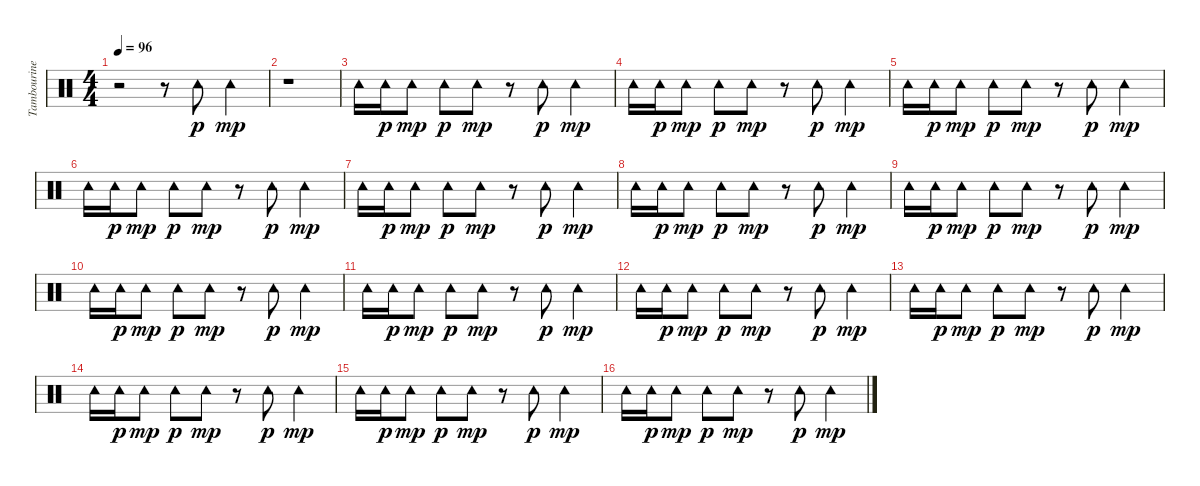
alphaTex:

\track ("Tambourine" "Tambourine") {instrument percussion}
\staff {score}
\articulation defaults
\ts (4 4)
\tempo 96
\clef neutral
\ks c
r.2{dy mp} r.8 "Tambourine (hit)".8{dy p} "Tambourine (hit)".4{dy mp} |
r.1 |
"Tambourine (hit)".16 "Tambourine (hit)".16{dy p} "Tambourine (hit)".8{dy mp} "Tambourine (hit)".8{dy p} "Tambourine (hit)".8{dy mp} r.8 "Tambourine (hit)".8{dy p} "Tambourine (hit)".4{dy mp} |
"Tambourine (hit)".16 "Tambourine (hit)".16{dy p} "Tambourine (hit)".8{dy mp} "Tambourine (hit)".8{dy p} "Tambourine (hit)".8{dy mp} r.8 "Tambourine (hit)".8{dy p} "Tambourine (hit)".4{dy mp} |
"Tambourine (hit)".16 "Tambourine (hit)".16{dy p} "Tambourine (hit)".8{dy mp} "Tambourine (hit)".8{dy p} "Tambourine (hit)".8{dy mp} r.8 "Tambourine (hit)".8{dy p} "Tambourine (hit)".4{dy mp} |
"Tambourine (hit)".16 "Tambourine (hit)".16{dy p} "Tambourine (hit)".8{dy mp} "Tambourine (hit)".8{dy p} "Tambourine (hit)".8{dy mp} r.8 "Tambourine (hit)".8{dy p} "Tambourine (hit)".4{dy mp} |
"Tambourine (hit)".16 "Tambourine (hit)".16{dy p} "Tambourine (hit)".8{dy mp} "Tambourine (hit)".8{dy p} "Tambourine (hit)".8{dy mp} r.8 "Tambourine (hit)".8{dy p} "Tambourine (hit)".4{dy mp} |
"Tambourine (hit)".16 "Tambourine (hit)".16{dy p} "Tambourine (hit)".8{dy mp} "Tambourine (hit)".8{dy p} "Tambourine (hit)".8{dy mp} r.8 "Tambourine (hit)".8{dy p} "Tambourine (hit)".4{dy mp} |
"Tambourine (hit)".16 "Tambourine (hit)".16{dy p} "Tambourine (hit)".8{dy mp} "Tambourine (hit)".8{dy p} "Tambourine (hit)".8{dy mp} r.8 "Tambourine (hit)".8{dy p} "Tambourine (hit)".4{dy mp} |
"Tambourine (hit)".16 "Tambourine (hit)".16{dy p} "Tambourine (hit)".8{dy mp} "Tambourine (hit)".8{dy p} "Tambourine (hit)".8{dy mp} r.8 "Tambourine (hit)".8{dy p} "Tambourine (hit)".4{dy mp} |
"Tambourine (hit)".16 "Tambourine (hit)".16{dy p} "Tambourine (hit)".8{dy mp} "Tambourine (hit)".8{dy p} "Tambourine (hit)".8{dy mp} r.8 "Tambourine (hit)".8{dy p} "Tambourine (hit)".4{dy mp} |
"Tambourine (hit)".16 "Tambourine (hit)".16{dy p} "Tambourine (hit)".8{dy mp} "Tambourine (hit)".8{dy p} "Tambourine (hit)".8{dy mp} r.8 "Tambourine (hit)".8{dy p} "Tambourine (hit)".4{dy mp} |
"Tambourine (hit)".16 "Tambourine (hit)".16{dy p} "Tambourine (hit)".8{dy mp} "Tambourine (hit)".8{dy p} "Tambourine (hit)".8{dy mp} r.8 "Tambourine (hit)".8{dy p} "Tambourine (hit)".4{dy mp} |
"Tambourine (hit)".16 "Tambourine (hit)".16{dy p} "Tambourine (hit)".8{dy mp} "Tambourine (hit)".8{dy p} "Tambourine (hit)".8{dy mp} r.8 "Tambourine (hit)".8{dy p} "Tambourine (hit)".4{dy mp} |
"Tambourine (hit)".16 "Tambourine (hit)".16{dy p} "Tambourine (hit)".8{dy mp} "Tambourine (hit)".8{dy p} "Tambourine (hit)".8{dy mp} r.8 "Tambourine (hit)".8{dy p} "Tambourine (hit)".4{dy mp} |
"Tambourine (hit)".16 "Tambourine (hit)".16{dy p} "Tambourine (hit)".8{dy mp} "Tambourine (hit)".8{dy p} "Tambourine (hit)".8{dy mp} r.8 "Tambourine (hit)".8{dy p} "Tambourine (hit)".4{dy mp}
